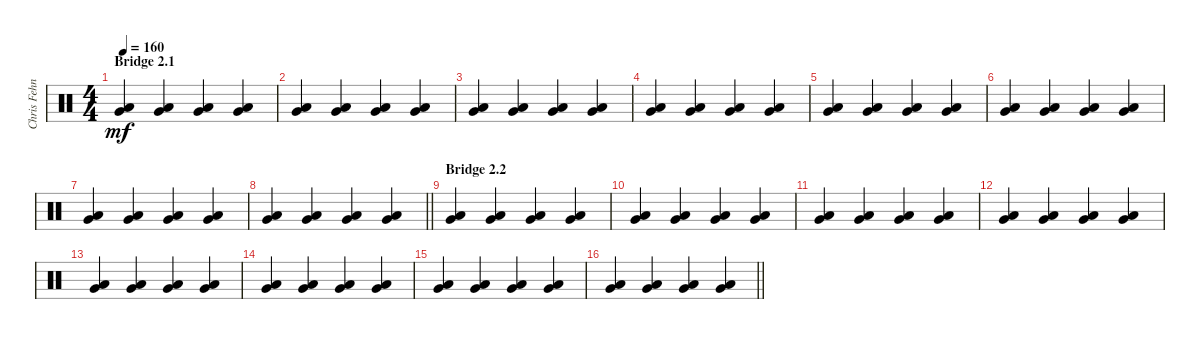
\track ("Chris Fehn" "Chris Fehn") {instrument percussion}
\staff {score}
\articulation defaults
\ts (4 4)
\section ("" "Bridge 2.1")
\tempo 160
\clef neutral
\ks c
("Very Low Tom (hit)" "Low Floor Tom (hit)").4{dy mf} ("Very Low Tom (hit)" "Low Floor Tom (hit)").4 ("Very Low Tom (hit)" "Low Floor Tom (hit)").4 ("Very Low Tom (hit)" "Low Floor Tom (hit)").4 |
("Very Low Tom (hit)" "Low Floor Tom (hit)").4 ("Very Low Tom (hit)" "Low Floor Tom (hit)").4 ("Very Low Tom (hit)" "Low Floor Tom (hit)").4 ("Very Low Tom (hit)" "Low Floor Tom (hit)").4 |
("Very Low Tom (hit)" "Low Floor Tom (hit)").4 ("Very Low Tom (hit)" "Low Floor Tom (hit)").4 ("Very Low Tom (hit)" "Low Floor Tom (hit)").4 ("Very Low Tom (hit)" "Low Floor Tom (hit)").4 |
("Very Low Tom (hit)" "Low Floor Tom (hit)").4 ("Very Low Tom (hit)" "Low Floor Tom (hit)").4 ("Very Low Tom (hit)" "Low Floor Tom (hit)").4 ("Very Low Tom (hit)" "Low Floor Tom (hit)").4 |
("Very Low Tom (hit)" "Low Floor Tom (hit)").4 ("Very Low Tom (hit)" "Low Floor Tom (hit)").4 ("Very Low Tom (hit)" "Low Floor Tom (hit)").4 ("Very Low Tom (hit)" "Low Floor Tom (hit)").4 |
("Very Low Tom (hit)" "Low Floor Tom (hit)").4 ("Very Low Tom (hit)" "Low Floor Tom (hit)").4 ("Very Low Tom (hit)" "Low Floor Tom (hit)").4 ("Very Low Tom (hit)" "Low Floor Tom (hit)").4 |
("Very Low Tom (hit)" "Low Floor Tom (hit)").4 ("Very Low Tom (hit)" "Low Floor Tom (hit)").4 ("Very Low Tom (hit)" "Low Floor Tom (hit)").4 ("Very Low Tom (hit)" "Low Floor Tom (hit)").4 |
\barLineRight lightlight
("Very Low Tom (hit)" "Low Floor Tom (hit)").4 ("Very Low Tom (hit)" "Low Floor Tom (hit)").4 ("Very Low Tom (hit)" "Low Floor Tom (hit)").4 ("Very Low Tom (hit)" "Low Floor Tom (hit)").4 |
\section ("" "Bridge 2.2")
("Very Low Tom (hit)" "Low Floor Tom (hit)").4 ("Very Low Tom (hit)" "Low Floor Tom (hit)").4 ("Very Low Tom (hit)" "Low Floor Tom (hit)").4 ("Very Low Tom (hit)" "Low Floor Tom (hit)").4 |
("Very Low Tom (hit)" "Low Floor Tom (hit)").4 ("Very Low Tom (hit)" "Low Floor Tom (hit)").4 ("Very Low Tom (hit)" "Low Floor Tom (hit)").4 ("Very Low Tom (hit)" "Low Floor Tom (hit)").4 |
("Very Low Tom (hit)" "Low Floor Tom (hit)").4 ("Very Low Tom (hit)" "Low Floor Tom (hit)").4 ("Very Low Tom (hit)" "Low Floor Tom (hit)").4 ("Very Low Tom (hit)" "Low Floor Tom (hit)").4 |
("Very Low Tom (hit)" "Low Floor Tom (hit)").4 ("Very Low Tom (hit)" "Low Floor Tom (hit)").4 ("Very Low Tom (hit)" "Low Floor Tom (hit)").4 ("Very Low Tom (hit)" "Low Floor Tom (hit)").4 |
("Very Low Tom (hit)" "Low Floor Tom (hit)").4 ("Very Low Tom (hit)" "Low Floor Tom (hit)").4 ("Very Low Tom (hit)" "Low Floor Tom (hit)").4 ("Very Low Tom (hit)" "Low Floor Tom (hit)").4 |
("Very Low Tom (hit)" "Low Floor Tom (hit)").4 ("Very Low Tom (hit)" "Low Floor Tom (hit)").4 ("Very Low Tom (hit)" "Low Floor Tom (hit)").4 ("Very Low Tom (hit)" "Low Floor Tom (hit)").4 |
("Very Low Tom (hit)" "Low Floor Tom (hit)").4 ("Very Low Tom (hit)" "Low Floor Tom (hit)").4 ("Very Low Tom (hit)" "Low Floor Tom (hit)").4 ("Very Low Tom (hit)" "Low Floor Tom (hit)").4 |
\barLineRight lightlight
("Very Low Tom (hit)" "Low Floor Tom (hit)").4 ("Very Low Tom (hit)" "Low Floor Tom (hit)").4 ("Very Low Tom (hit)" "Low Floor Tom (hit)").4 ("Very Low Tom (hit)" "Low Floor Tom (hit)").4
